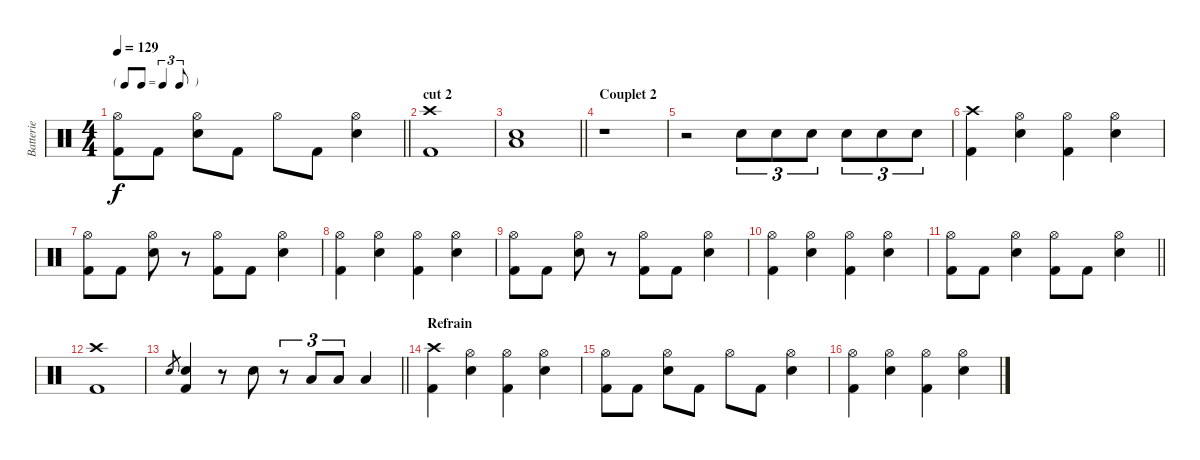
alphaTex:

\track ("Batterie" "Batterie") {instrument percussion}
\staff {score}
\articulation defaults
\ts (4 4)
\tf triplet8th
\tempo 129
\clef neutral
\barLineRight lightlight
\ks c
("Hi-Hat (open)" "Kick (hit) 2").8{dy f} "Kick (hit) 2".8 ("Hi-Hat (open)" "Snare (hit) 2").8 "Kick (hit) 2".8 "Hi-Hat (open)".8 "Kick (hit) 2".8 ("Hi-Hat (open)" "Snare (hit) 2").4 |
\section ("" "cut 2")
("Crash high (hit)" "Kick (hit) 2").1 |
\barLineRight lightlight
("Snare (hit) 2" "Low Floor Tom (hit)").1 |
\section ("" "Couplet 2")
r.1 |
r.2 "Snare (hit) 2".8{tu (3 2)} "Snare (hit) 2".8{tu (3 2)} "Snare (hit) 2".8{tu (3 2)} "Snare (hit) 2".8{tu (3 2)} "Snare (hit) 2".8{tu (3 2)} "Snare (hit) 2".8{tu (3 2)} |
("Crash high (hit)" "Kick (hit) 2").4 ("Hi-Hat (open)" "Snare (hit) 2").4 ("Hi-Hat (open)" "Kick (hit) 2").4 ("Hi-Hat (open)" "Snare (hit) 2").4 |
("Hi-Hat (open)" "Kick (hit) 2").8 "Kick (hit) 2".8 ("Hi-Hat (open)" "Snare (hit) 2").8 r.8 ("Hi-Hat (open)" "Kick (hit) 2").8 "Kick (hit) 2".8 ("Hi-Hat (open)" "Snare (hit) 2").4 |
("Hi-Hat (open)" "Kick (hit) 2").4 ("Hi-Hat (open)" "Snare (hit) 2").4 ("Hi-Hat (open)" "Kick (hit) 2").4 ("Hi-Hat (open)" "Snare (hit) 2").4 |
("Hi-Hat (open)" "Kick (hit) 2").8 "Kick (hit) 2".8 ("Hi-Hat (open)" "Snare (hit) 2").8 r.8 ("Hi-Hat (open)" "Kick (hit) 2").8 "Kick (hit) 2".8 ("Hi-Hat (open)" "Snare (hit) 2").4 |
("Hi-Hat (open)" "Kick (hit) 2").4 ("Hi-Hat (open)" "Snare (hit) 2").4 ("Hi-Hat (open)" "Kick (hit) 2").4 ("Hi-Hat (open)" "Snare (hit) 2").4 |
\barLineRight lightlight
("Hi-Hat (open)" "Kick (hit) 2").8 "Kick (hit) 2".8 ("Hi-Hat (open)" "Snare (hit) 2").4 ("Hi-Hat (open)" "Kick (hit) 2").8 "Kick (hit) 2".8 ("Hi-Hat (open)" "Snare (hit) 2").4 |
\section ("" "")
("Crash high (hit)" "Kick (hit) 2").1 |
\barLineRight lightlight "Snare (hit) 2"{h}.8{gr}
("Snare (hit) 2" "Kick (hit) 2").4 r.8 "Snare (hit) 2".8 r.8{tu (3 2)} "Low Tom (hit)".8{tu (3 2)} "Low Tom (hit)".8{tu (3 2)} "Low Tom (hit)".4 |
\section ("" "Refrain")
("Crash high (hit)" "Kick (hit) 2").4 ("Hi-Hat (open)" "Snare (hit) 2").4 ("Hi-Hat (open)" "Kick (hit) 2").4 ("Hi-Hat (open)" "Snare (hit) 2").4 |
("Hi-Hat (open)" "Kick (hit) 2").8 "Kick (hit) 2".8 ("Hi-Hat (open)" "Snare (hit) 2").8 "Kick (hit) 2".8 "Hi-Hat (open)".8 "Kick (hit) 2".8 ("Hi-Hat (open)" "Snare (hit) 2").4 |
("Hi-Hat (open)" "Kick (hit) 2").4 ("Hi-Hat (open)" "Snare (hit) 2").4 ("Hi-Hat (open)" "Kick (hit) 2").4 ("Hi-Hat (open)" "Snare (hit) 2").4
